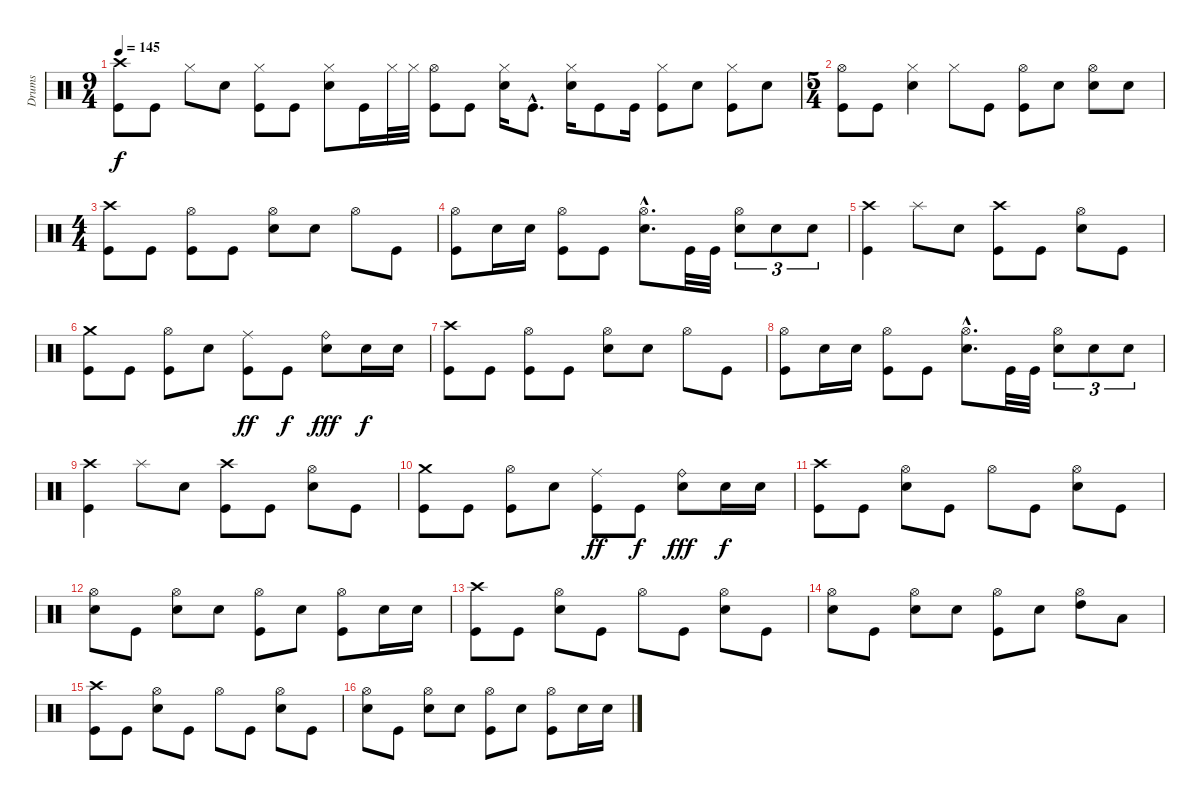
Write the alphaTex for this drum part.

\track ("Drums" "Drums") {instrument percussion}
\staff {score}
\articulation defaults
\ts (9 4)
\tempo 145
\clef neutral
\ks c
("Crash high (hit)" "Kick (hit)").8{dy f} "Kick (hit)".8 "Hi-Hat (closed)".8 "Electric Snare (hit)".8 ("Hi-Hat (closed)" "Kick (hit)").8 "Kick (hit)".8 ("Hi-Hat (closed)" "Electric Snare (hit)").8 "Kick (hit)".16 "Hi-Hat (closed)".32 "Hi-Hat (closed)".32 ("Hi-Hat (open)" "Kick (hit)").8 "Kick (hit)".8 ("Hi-Hat (closed)" "Electric Snare (hit)").16 "Kick (hit)"{hac}.8{d} ("Hi-Hat (closed)" "Electric Snare (hit)").16 "Kick (hit)".8 "Kick (hit)".16 ("Hi-Hat (closed)" "Kick (hit)").8 "Electric Snare (hit)".8 ("Hi-Hat (closed)" "Kick (hit)").8 "Electric Snare (hit)".8 |
\ts (5 4)
("Hi-Hat (open)" "Kick (hit)").8 "Kick (hit)".8 ("Hi-Hat (closed)" "Electric Snare (hit)").4 "Hi-Hat (closed)".8 "Kick (hit)".8 ("Hi-Hat (open)" "Kick (hit)").8 "Electric Snare (hit)".8 ("Hi-Hat (open)" "Electric Snare (hit)").8 "Electric Snare (hit)".8 |
\ts (4 4)
("Crash high (hit)" "Kick (hit)").8 "Kick (hit)".8 ("Hi-Hat (open)" "Kick (hit)").8 "Kick (hit)".8 ("Hi-Hat (open)" "Electric Snare (hit)").8 "Electric Snare (hit)".8 "Hi-Hat (open)".8 "Kick (hit)".8 |
("Hi-Hat (open)" "Kick (hit)").8 "Electric Snare (hit)".16 "Electric Snare (hit)".16 ("Hi-Hat (open)" "Kick (hit)").8 "Kick (hit)".8 ("Hi-Hat (open)"{hac} "Electric Snare (hit)"{hac}).8{d} "Kick (hit)".32 "Kick (hit)".32 ("Hi-Hat (open)" "Electric Snare (hit)").8{tu (3 2)} "Electric Snare (hit)".8{tu (3 2)} "Electric Snare (hit)".8{tu (3 2)} |
("Crash high (hit)" "Kick (hit)").4 "Splash (hit)".8 "Electric Snare (hit)".8 ("Crash high (hit)" "Kick (hit)").8 "Kick (hit)".8 ("Hi-Hat (open)" "Electric Snare (hit)").8 "Kick (hit)".8 |
("Crash medium (hit)" "Kick (hit)").8 "Kick (hit)".8 ("Hi-Hat (open)" "Kick (hit)").8 "Electric Snare (hit)".8 ("Ride (middle)" "Kick (hit)").8{dy ff} "Kick (hit)".8{dy f} ("Ride (bell)" "Electric Snare (hit)").8{dy fff} "Electric Snare (hit)".16{dy f} "Electric Snare (hit)".16 |
("Crash high (hit)" "Kick (hit)").8 "Kick (hit)".8 ("Hi-Hat (open)" "Kick (hit)").8 "Kick (hit)".8 ("Hi-Hat (open)" "Electric Snare (hit)").8 "Electric Snare (hit)".8 "Hi-Hat (open)".8 "Kick (hit)".8 |
("Hi-Hat (open)" "Kick (hit)").8 "Electric Snare (hit)".16 "Electric Snare (hit)".16 ("Hi-Hat (open)" "Kick (hit)").8 "Kick (hit)".8 ("Hi-Hat (open)"{hac} "Electric Snare (hit)"{hac}).8{d} "Kick (hit)".32 "Kick (hit)".32 ("Hi-Hat (open)" "Electric Snare (hit)").8{tu (3 2)} "Electric Snare (hit)".8{tu (3 2)} "Electric Snare (hit)".8{tu (3 2)} |
("Crash high (hit)" "Kick (hit)").4 "Splash (hit)".8 "Electric Snare (hit)".8 ("Crash high (hit)" "Kick (hit)").8 "Kick (hit)".8 ("Hi-Hat (open)" "Electric Snare (hit)").8 "Kick (hit)".8 |
("Crash medium (hit)" "Kick (hit)").8 "Kick (hit)".8 ("Hi-Hat (open)" "Kick (hit)").8 "Electric Snare (hit)".8 ("Ride (middle)" "Kick (hit)").8{dy ff} "Kick (hit)".8{dy f} ("Ride (bell)" "Electric Snare (hit)").8{dy fff} "Electric Snare (hit)".16{dy f} "Electric Snare (hit)".16 |
("Crash high (hit)" "Kick (hit)").8 "Kick (hit)".8 ("Hi-Hat (open)" "Electric Snare (hit)").8 "Kick (hit)".8 "Hi-Hat (open)".8 "Kick (hit)".8 ("Hi-Hat (open)" "Electric Snare (hit)").8 "Kick (hit)".8 |
("Hi-Hat (open)" "Electric Snare (hit)").8 "Kick (hit)".8 ("Hi-Hat (open)" "Electric Snare (hit)").8 "Electric Snare (hit)".8 ("Hi-Hat (open)" "Kick (hit)").8 "Electric Snare (hit)".8 ("Hi-Hat (open)" "Kick (hit)").8 "Electric Snare (hit)".16 "Electric Snare (hit)".16 |
("Crash high (hit)" "Kick (hit)").8 "Kick (hit)".8 ("Hi-Hat (open)" "Electric Snare (hit)").8 "Kick (hit)".8 "Hi-Hat (open)".8 "Kick (hit)".8 ("Hi-Hat (open)" "Electric Snare (hit)").8 "Kick (hit)".8 |
("Hi-Hat (open)" "Electric Snare (hit)").8 "Kick (hit)".8 ("Hi-Hat (open)" "Electric Snare (hit)").8 "Electric Snare (hit)".8 ("Hi-Hat (open)" "Kick (hit)").8 "Electric Snare (hit)".8 ("Hi-Hat (open)" "High Tom (hit)").8 "Low Tom (hit)".8 |
("Crash high (hit)" "Kick (hit)").8 "Kick (hit)".8 ("Hi-Hat (open)" "Electric Snare (hit)").8 "Kick (hit)".8 "Hi-Hat (open)".8 "Kick (hit)".8 ("Hi-Hat (open)" "Electric Snare (hit)").8 "Kick (hit)".8 |
("Hi-Hat (open)" "Electric Snare (hit)").8 "Kick (hit)".8 ("Hi-Hat (open)" "Electric Snare (hit)").8 "Electric Snare (hit)".8 ("Hi-Hat (open)" "Kick (hit)").8 "Electric Snare (hit)".8 ("Hi-Hat (open)" "Kick (hit)").8 "Electric Snare (hit)".16 "Electric Snare (hit)".16
